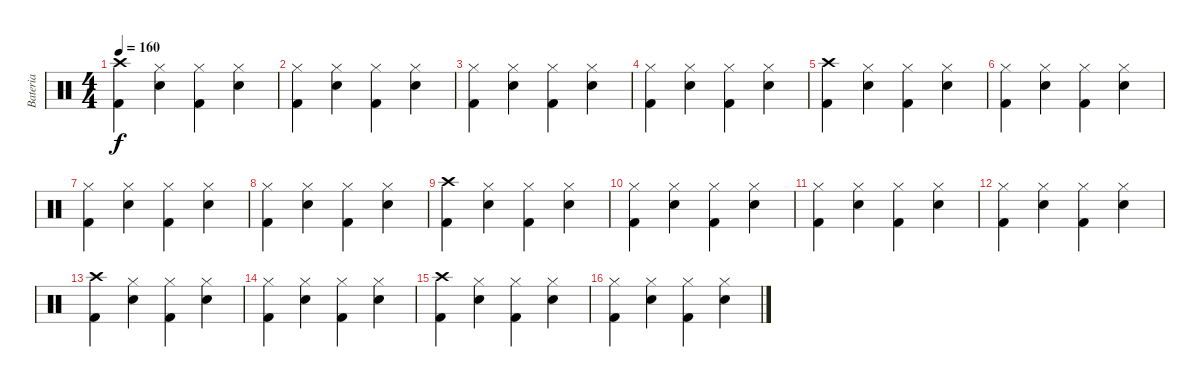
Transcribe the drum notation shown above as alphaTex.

\track ("Bateria" "Bateria") {instrument percussion}
\staff {score}
\articulation defaults
\ts (4 4)
\tempo 160
\clef neutral
\ks c
("Crash high (hit)" "Kick (hit) 2").4{dy f} ("Hi-Hat (closed)" "Snare (hit) 2").4 ("Hi-Hat (closed)" "Kick (hit) 2").4 ("Hi-Hat (closed)" "Snare (hit) 2").4 |
("Hi-Hat (closed)" "Kick (hit) 2").4 ("Hi-Hat (closed)" "Snare (hit) 2").4 ("Hi-Hat (closed)" "Kick (hit) 2").4 ("Hi-Hat (closed)" "Snare (hit) 2").4 |
("Hi-Hat (closed)" "Kick (hit) 2").4 ("Hi-Hat (closed)" "Snare (hit) 2").4 ("Hi-Hat (closed)" "Kick (hit) 2").4 ("Hi-Hat (closed)" "Snare (hit) 2").4 |
("Hi-Hat (closed)" "Kick (hit) 2").4 ("Hi-Hat (closed)" "Snare (hit) 2").4 ("Hi-Hat (closed)" "Kick (hit) 2").4 ("Hi-Hat (closed)" "Snare (hit) 2").4 |
("Crash high (hit)" "Kick (hit) 2").4 ("Hi-Hat (closed)" "Snare (hit) 2").4 ("Hi-Hat (closed)" "Kick (hit) 2").4 ("Hi-Hat (closed)" "Snare (hit) 2").4 |
("Hi-Hat (closed)" "Kick (hit) 2").4 ("Hi-Hat (closed)" "Snare (hit) 2").4 ("Hi-Hat (closed)" "Kick (hit) 2").4 ("Hi-Hat (closed)" "Snare (hit) 2").4 |
("Hi-Hat (closed)" "Kick (hit) 2").4 ("Hi-Hat (closed)" "Snare (hit) 2").4 ("Hi-Hat (closed)" "Kick (hit) 2").4 ("Hi-Hat (closed)" "Snare (hit) 2").4 |
("Hi-Hat (closed)" "Kick (hit) 2").4 ("Hi-Hat (closed)" "Snare (hit) 2").4 ("Hi-Hat (closed)" "Kick (hit) 2").4 ("Hi-Hat (closed)" "Snare (hit) 2").4 |
("Crash high (hit)" "Kick (hit) 2").4 ("Hi-Hat (closed)" "Snare (hit) 2").4 ("Hi-Hat (closed)" "Kick (hit) 2").4 ("Hi-Hat (closed)" "Snare (hit) 2").4 |
("Hi-Hat (closed)" "Kick (hit) 2").4 ("Hi-Hat (closed)" "Snare (hit) 2").4 ("Hi-Hat (closed)" "Kick (hit) 2").4 ("Hi-Hat (closed)" "Snare (hit) 2").4 |
("Hi-Hat (closed)" "Kick (hit) 2").4 ("Hi-Hat (closed)" "Snare (hit) 2").4 ("Hi-Hat (closed)" "Kick (hit) 2").4 ("Hi-Hat (closed)" "Snare (hit) 2").4 |
("Hi-Hat (closed)" "Kick (hit) 2").4 ("Hi-Hat (closed)" "Snare (hit) 2").4 ("Hi-Hat (closed)" "Kick (hit) 2").4 ("Hi-Hat (closed)" "Snare (hit) 2").4 |
("Crash high (hit)" "Kick (hit) 2").4 ("Hi-Hat (closed)" "Snare (hit) 2").4 ("Hi-Hat (closed)" "Kick (hit) 2").4 ("Hi-Hat (closed)" "Snare (hit) 2").4 |
("Hi-Hat (closed)" "Kick (hit) 2").4 ("Hi-Hat (closed)" "Snare (hit) 2").4 ("Hi-Hat (closed)" "Kick (hit) 2").4 ("Hi-Hat (closed)" "Snare (hit) 2").4 |
("Crash high (hit)" "Kick (hit) 2").4 ("Hi-Hat (closed)" "Snare (hit) 2").4 ("Hi-Hat (closed)" "Kick (hit) 2").4 ("Hi-Hat (closed)" "Snare (hit) 2").4 |
("Hi-Hat (closed)" "Kick (hit) 2").4 ("Hi-Hat (closed)" "Snare (hit) 2").4 ("Hi-Hat (closed)" "Kick (hit) 2").4 ("Hi-Hat (closed)" "Snare (hit) 2").4
